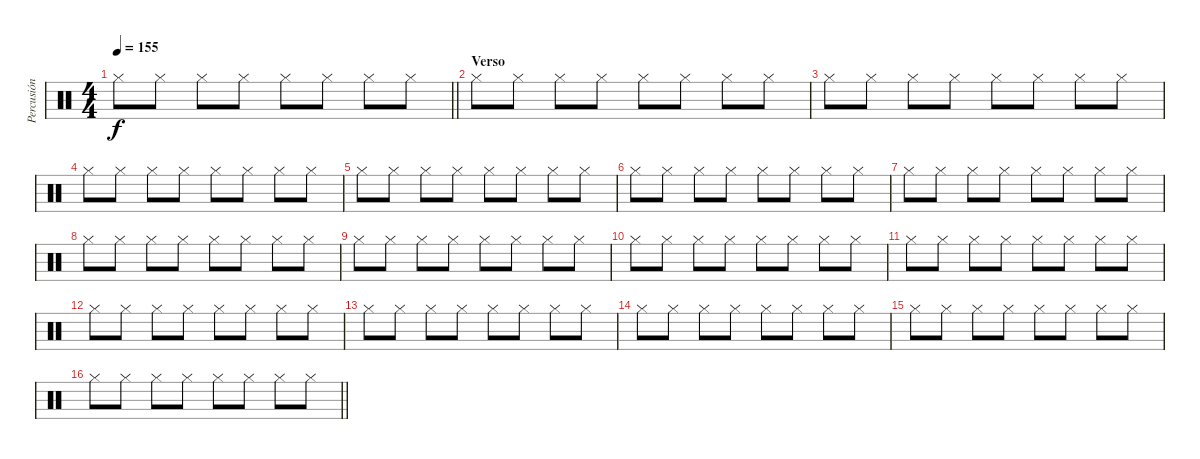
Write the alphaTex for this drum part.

\track ("Percusión" "Percusión") {instrument percussion}
\staff {score}
\articulation defaults
\ts (4 4)
\tempo 155
\clef neutral
\barLineRight lightlight
\ks c "Hi-Hat (closed)".8{dy f} "Hi-Hat (closed)".8 "Hi-Hat (closed)".8 "Hi-Hat (closed)".8 "Hi-Hat (closed)".8 "Hi-Hat (closed)".8 "Hi-Hat (closed)".8 "Hi-Hat (closed)".8
|
\section ("" "Verso")
"Hi-Hat (closed)".8 "Hi-Hat (closed)".8 "Hi-Hat (closed)".8 "Hi-Hat (closed)".8 "Hi-Hat (closed)".8 "Hi-Hat (closed)".8 "Hi-Hat (closed)".8 "Hi-Hat (closed)".8 |
"Hi-Hat (closed)".8 "Hi-Hat (closed)".8 "Hi-Hat (closed)".8 "Hi-Hat (closed)".8 "Hi-Hat (closed)".8 "Hi-Hat (closed)".8 "Hi-Hat (closed)".8 "Hi-Hat (closed)".8 |
"Hi-Hat (closed)".8 "Hi-Hat (closed)".8 "Hi-Hat (closed)".8 "Hi-Hat (closed)".8 "Hi-Hat (closed)".8 "Hi-Hat (closed)".8 "Hi-Hat (closed)".8 "Hi-Hat (closed)".8 |
"Hi-Hat (closed)".8 "Hi-Hat (closed)".8 "Hi-Hat (closed)".8 "Hi-Hat (closed)".8 "Hi-Hat (closed)".8 "Hi-Hat (closed)".8 "Hi-Hat (closed)".8 "Hi-Hat (closed)".8 |
"Hi-Hat (closed)".8 "Hi-Hat (closed)".8 "Hi-Hat (closed)".8 "Hi-Hat (closed)".8 "Hi-Hat (closed)".8 "Hi-Hat (closed)".8 "Hi-Hat (closed)".8 "Hi-Hat (closed)".8 |
"Hi-Hat (closed)".8 "Hi-Hat (closed)".8 "Hi-Hat (closed)".8 "Hi-Hat (closed)".8 "Hi-Hat (closed)".8 "Hi-Hat (closed)".8 "Hi-Hat (closed)".8 "Hi-Hat (closed)".8 |
"Hi-Hat (closed)".8 "Hi-Hat (closed)".8 "Hi-Hat (closed)".8 "Hi-Hat (closed)".8 "Hi-Hat (closed)".8 "Hi-Hat (closed)".8 "Hi-Hat (closed)".8 "Hi-Hat (closed)".8 |
"Hi-Hat (closed)".8 "Hi-Hat (closed)".8 "Hi-Hat (closed)".8 "Hi-Hat (closed)".8 "Hi-Hat (closed)".8 "Hi-Hat (closed)".8 "Hi-Hat (closed)".8 "Hi-Hat (closed)".8 |
"Hi-Hat (closed)".8 "Hi-Hat (closed)".8 "Hi-Hat (closed)".8 "Hi-Hat (closed)".8 "Hi-Hat (closed)".8 "Hi-Hat (closed)".8 "Hi-Hat (closed)".8 "Hi-Hat (closed)".8 |
"Hi-Hat (closed)".8 "Hi-Hat (closed)".8 "Hi-Hat (closed)".8 "Hi-Hat (closed)".8 "Hi-Hat (closed)".8 "Hi-Hat (closed)".8 "Hi-Hat (closed)".8 "Hi-Hat (closed)".8 |
"Hi-Hat (closed)".8 "Hi-Hat (closed)".8 "Hi-Hat (closed)".8 "Hi-Hat (closed)".8 "Hi-Hat (closed)".8 "Hi-Hat (closed)".8 "Hi-Hat (closed)".8 "Hi-Hat (closed)".8 |
"Hi-Hat (closed)".8 "Hi-Hat (closed)".8 "Hi-Hat (closed)".8 "Hi-Hat (closed)".8 "Hi-Hat (closed)".8 "Hi-Hat (closed)".8 "Hi-Hat (closed)".8 "Hi-Hat (closed)".8 |
"Hi-Hat (closed)".8 "Hi-Hat (closed)".8 "Hi-Hat (closed)".8 "Hi-Hat (closed)".8 "Hi-Hat (closed)".8 "Hi-Hat (closed)".8 "Hi-Hat (closed)".8 "Hi-Hat (closed)".8 |
"Hi-Hat (closed)".8 "Hi-Hat (closed)".8 "Hi-Hat (closed)".8 "Hi-Hat (closed)".8 "Hi-Hat (closed)".8 "Hi-Hat (closed)".8 "Hi-Hat (closed)".8 "Hi-Hat (closed)".8 |
\barLineRight lightlight "Hi-Hat (closed)".8 "Hi-Hat (closed)".8 "Hi-Hat (closed)".8 "Hi-Hat (closed)".8 "Hi-Hat (closed)".8 "Hi-Hat (closed)".8 "Hi-Hat (closed)".8 "Hi-Hat (closed)".8
